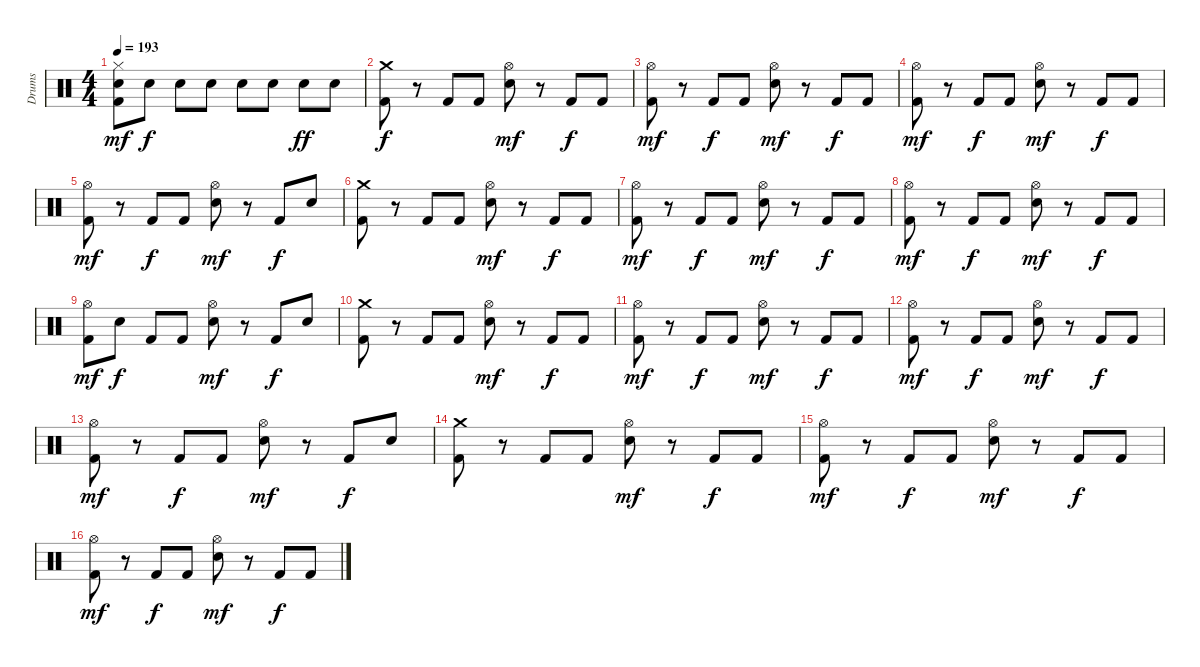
\track ("Drums" "Drums") {instrument percussion}
\staff {score}
\articulation defaults
\ts (4 4)
\tempo 193
\clef neutral
\ks c
("Hi-Hat (closed)" "Snare (hit) 2" "Kick (hit) 2").8{dy mf} "Snare (hit) 2".8{dy f} "Snare (hit) 2".8 "Snare (hit) 2".8 "Snare (hit) 2".8 "Snare (hit) 2".8 "Snare (hit) 2".8{dy ff} "Snare (hit) 2".8 |
("Crash medium (hit)" "Kick (hit) 2").8{dy f} r.8 "Kick (hit) 2".8 "Kick (hit) 2".8 ("Hi-Hat (open)" "Snare (hit) 2").8{dy mf} r.8 "Kick (hit) 2".8{dy f} "Kick (hit) 2".8 |
("Hi-Hat (open)" "Kick (hit) 2").8{dy mf} r.8 "Kick (hit) 2".8{dy f} "Kick (hit) 2".8 ("Hi-Hat (open)" "Snare (hit) 2").8{dy mf} r.8 "Kick (hit) 2".8{dy f} "Kick (hit) 2".8 |
("Hi-Hat (open)" "Kick (hit) 2").8{dy mf} r.8 "Kick (hit) 2".8{dy f} "Kick (hit) 2".8 ("Hi-Hat (open)" "Snare (hit) 2").8{dy mf} r.8 "Kick (hit) 2".8{dy f} "Kick (hit) 2".8 |
("Hi-Hat (open)" "Kick (hit) 2").8{dy mf} r.8 "Kick (hit) 2".8{dy f} "Kick (hit) 2".8 ("Hi-Hat (open)" "Snare (hit) 2").8{dy mf} r.8 "Kick (hit) 2".8{dy f} "Snare (hit) 2".8 |
("Crash medium (hit)" "Kick (hit) 2").8 r.8 "Kick (hit) 2".8 "Kick (hit) 2".8 ("Hi-Hat (open)" "Snare (hit) 2").8{dy mf} r.8 "Kick (hit) 2".8{dy f} "Kick (hit) 2".8 |
("Hi-Hat (open)" "Kick (hit) 2").8{dy mf} r.8 "Kick (hit) 2".8{dy f} "Kick (hit) 2".8 ("Hi-Hat (open)" "Snare (hit) 2").8{dy mf} r.8 "Kick (hit) 2".8{dy f} "Kick (hit) 2".8 |
("Hi-Hat (open)" "Kick (hit) 2").8{dy mf} r.8 "Kick (hit) 2".8{dy f} "Kick (hit) 2".8 ("Hi-Hat (open)" "Snare (hit) 2").8{dy mf} r.8 "Kick (hit) 2".8{dy f} "Kick (hit) 2".8 |
("Hi-Hat (open)" "Kick (hit) 2").8{dy mf} "Snare (hit) 2".8{dy f} "Kick (hit) 2".8 "Kick (hit) 2".8 ("Hi-Hat (open)" "Snare (hit) 2").8{dy mf} r.8 "Kick (hit) 2".8{dy f} "Snare (hit) 2".8 |
("Crash medium (hit)" "Kick (hit) 2").8 r.8 "Kick (hit) 2".8 "Kick (hit) 2".8 ("Hi-Hat (open)" "Snare (hit) 2").8{dy mf} r.8 "Kick (hit) 2".8{dy f} "Kick (hit) 2".8 |
("Hi-Hat (open)" "Kick (hit) 2").8{dy mf} r.8 "Kick (hit) 2".8{dy f} "Kick (hit) 2".8 ("Hi-Hat (open)" "Snare (hit) 2").8{dy mf} r.8 "Kick (hit) 2".8{dy f} "Kick (hit) 2".8 |
("Hi-Hat (open)" "Kick (hit) 2").8{dy mf} r.8 "Kick (hit) 2".8{dy f} "Kick (hit) 2".8 ("Hi-Hat (open)" "Snare (hit) 2").8{dy mf} r.8 "Kick (hit) 2".8{dy f} "Kick (hit) 2".8 |
("Hi-Hat (open)" "Kick (hit) 2").8{dy mf} r.8 "Kick (hit) 2".8{dy f} "Kick (hit) 2".8 ("Hi-Hat (open)" "Snare (hit) 2").8{dy mf} r.8 "Kick (hit) 2".8{dy f} "Snare (hit) 2".8 |
("Crash medium (hit)" "Kick (hit) 2").8 r.8 "Kick (hit) 2".8 "Kick (hit) 2".8 ("Hi-Hat (open)" "Snare (hit) 2").8{dy mf} r.8 "Kick (hit) 2".8{dy f} "Kick (hit) 2".8 |
("Hi-Hat (open)" "Kick (hit) 2").8{dy mf} r.8 "Kick (hit) 2".8{dy f} "Kick (hit) 2".8 ("Hi-Hat (open)" "Snare (hit) 2").8{dy mf} r.8 "Kick (hit) 2".8{dy f} "Kick (hit) 2".8 |
("Hi-Hat (open)" "Kick (hit) 2").8{dy mf} r.8 "Kick (hit) 2".8{dy f} "Kick (hit) 2".8 ("Hi-Hat (open)" "Snare (hit) 2").8{dy mf} r.8 "Kick (hit) 2".8{dy f} "Kick (hit) 2".8
